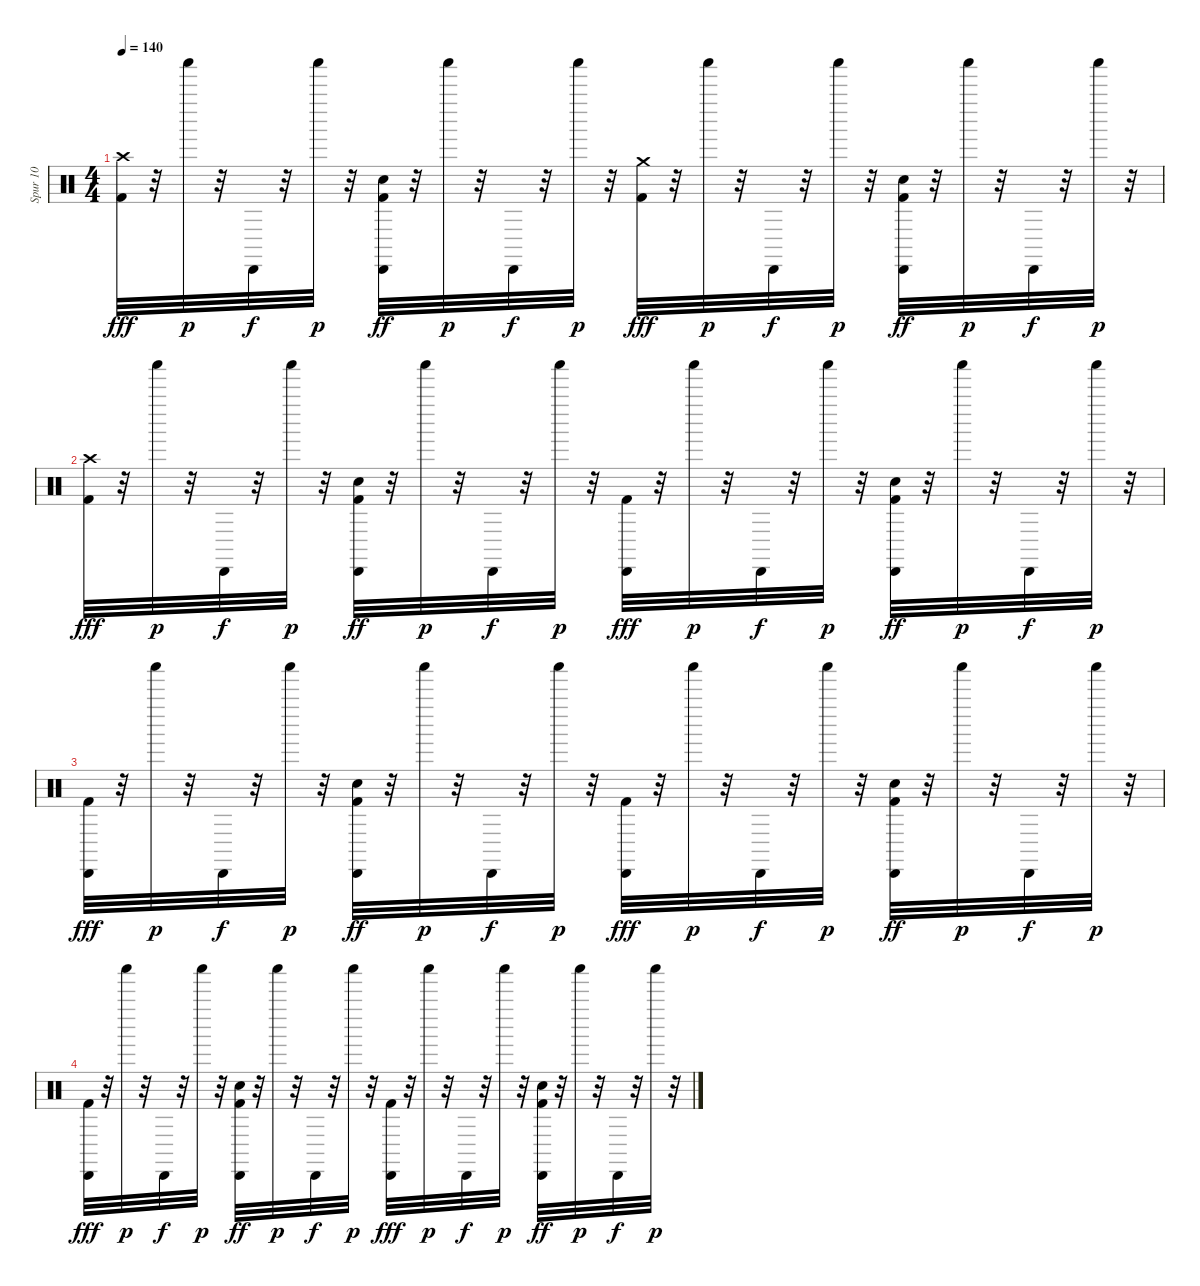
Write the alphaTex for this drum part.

\track ("Spur 10" "Spur 10") {instrument percussion}
\staff {score}
\articulation defaults
\ts (4 4)
\tempo 140
\clef neutral
\ks c
("Crash high (hit)" "Kick (hit) 2").32{dy fff} r.32 "Shaker (hit)".32{dy p} r.32 "Cabasa (hit)".32{dy f} r.32 "Shaker (hit)".32{dy p} r.32 ("Snare (hit) 2" "Cabasa (hit)" "Kick (hit) 2").32{dy ff} r.32 "Shaker (hit)".32{dy p} r.32 "Cabasa (hit)".32{dy f} r.32 "Shaker (hit)".32{dy p} r.32 ("Crash medium (hit)" "Kick (hit) 2").32{dy fff} r.32 "Shaker (hit)".32{dy p} r.32 "Cabasa (hit)".32{dy f} r.32 "Shaker (hit)".32{dy p} r.32 ("Snare (hit) 2" "Cabasa (hit)" "Kick (hit) 2").32{dy ff} r.32 "Shaker (hit)".32{dy p} r.32 "Cabasa (hit)".32{dy f} r.32 "Shaker (hit)".32{dy p} r.32 |
("Crash high (hit)" "Kick (hit) 2").32{dy fff} r.32 "Shaker (hit)".32{dy p} r.32 "Cabasa (hit)".32{dy f} r.32 "Shaker (hit)".32{dy p} r.32 ("Snare (hit) 2" "Cabasa (hit)" "Kick (hit) 2").32{dy ff} r.32 "Shaker (hit)".32{dy p} r.32 "Cabasa (hit)".32{dy f} r.32 "Shaker (hit)".32{dy p} r.32 ("Cabasa (hit)" "Kick (hit) 2").32{dy fff} r.32 "Shaker (hit)".32{dy p} r.32 "Cabasa (hit)".32{dy f} r.32 "Shaker (hit)".32{dy p} r.32 ("Snare (hit) 2" "Cabasa (hit)" "Kick (hit) 2").32{dy ff} r.32 "Shaker (hit)".32{dy p} r.32 "Cabasa (hit)".32{dy f} r.32 "Shaker (hit)".32{dy p} r.32 |
("Cabasa (hit)" "Kick (hit) 2").32{dy fff} r.32 "Shaker (hit)".32{dy p} r.32 "Cabasa (hit)".32{dy f} r.32 "Shaker (hit)".32{dy p} r.32 ("Snare (hit) 2" "Cabasa (hit)" "Kick (hit) 2").32{dy ff} r.32 "Shaker (hit)".32{dy p} r.32 "Cabasa (hit)".32{dy f} r.32 "Shaker (hit)".32{dy p} r.32 ("Cabasa (hit)" "Kick (hit) 2").32{dy fff} r.32 "Shaker (hit)".32{dy p} r.32 "Cabasa (hit)".32{dy f} r.32 "Shaker (hit)".32{dy p} r.32 ("Snare (hit) 2" "Cabasa (hit)" "Kick (hit) 2").32{dy ff} r.32 "Shaker (hit)".32{dy p} r.32 "Cabasa (hit)".32{dy f} r.32 "Shaker (hit)".32{dy p} r.32 |
("Cabasa (hit)" "Kick (hit) 2").32{dy fff} r.32 "Shaker (hit)".32{dy p} r.32 "Cabasa (hit)".32{dy f} r.32 "Shaker (hit)".32{dy p} r.32 ("Snare (hit) 2" "Cabasa (hit)" "Kick (hit) 2").32{dy ff} r.32 "Shaker (hit)".32{dy p} r.32 "Cabasa (hit)".32{dy f} r.32 "Shaker (hit)".32{dy p} r.32 ("Cabasa (hit)" "Kick (hit) 2").32{dy fff} r.32 "Shaker (hit)".32{dy p} r.32 "Cabasa (hit)".32{dy f} r.32 "Shaker (hit)".32{dy p} r.32 ("Snare (hit) 2" "Cabasa (hit)" "Kick (hit) 2").32{dy ff} r.32 "Shaker (hit)".32{dy p} r.32 "Cabasa (hit)".32{dy f} r.32 "Shaker (hit)".32{dy p} r.32
